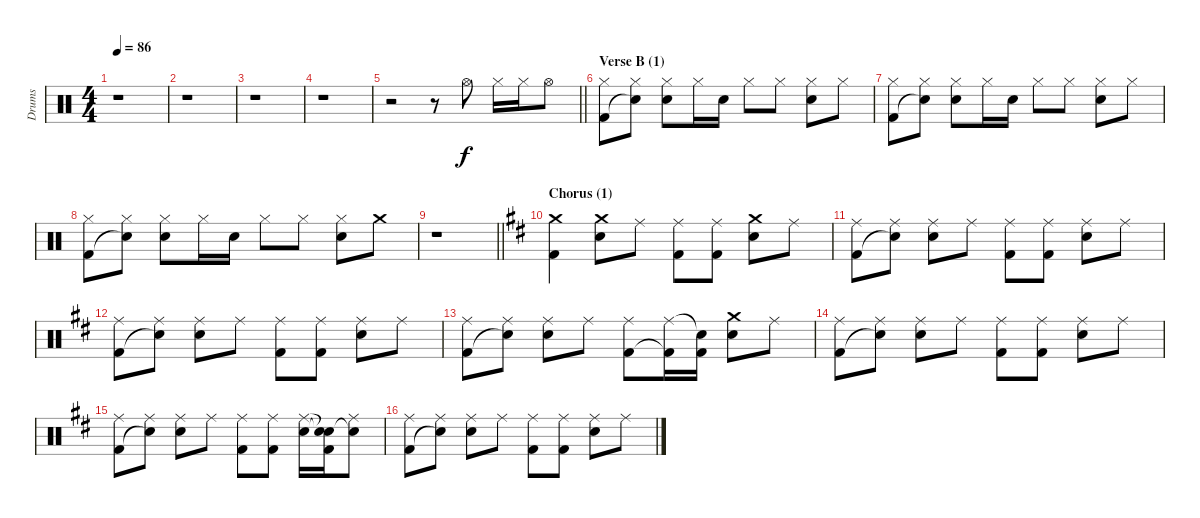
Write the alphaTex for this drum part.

\track ("Drums" "Drums") {instrument percussion}
\staff {score}
\articulation defaults
\ts (4 4)
\tempo 86
\clef neutral
\ks aminor
r.1{dy f} |
r.1 |
r.1 |
r.1 |
\barLineRight lightlight
r.2 r.8 "Hi-Hat (open)".8 "Hi-Hat (closed)".16 "Hi-Hat (closed)".16 "Hi-Hat (open)".8 |
\section ("" "Verse B (1)")
("Hi-Hat (closed)" "Kick (hit) 2").8 ("Hi-Hat (closed)" "Snare (hit)"{t}).8 ("Hi-Hat (closed)" "Electric Snare (hit)").8 "Hi-Hat (closed)".16 "Electric Snare (hit)".16 "Hi-Hat (closed)".8 "Hi-Hat (closed)".8 ("Hi-Hat (closed)" "Electric Snare (hit)").8 "Hi-Hat (closed)".8 |
("Hi-Hat (closed)" "Kick (hit) 2").8 ("Hi-Hat (closed)" "Snare (hit)"{t}).8 ("Hi-Hat (closed)" "Electric Snare (hit)").8 "Hi-Hat (closed)".16 "Electric Snare (hit)".16 "Hi-Hat (closed)".8 "Hi-Hat (closed)".8 ("Hi-Hat (closed)" "Electric Snare (hit)").8 "Hi-Hat (closed)".8 |
("Hi-Hat (closed)" "Kick (hit) 2").8 ("Hi-Hat (closed)" "Snare (hit)"{t}).8 ("Hi-Hat (closed)" "Electric Snare (hit)").8 "Hi-Hat (closed)".16 "Electric Snare (hit)".16 "Hi-Hat (closed)".8 "Hi-Hat (closed)".8 ("Hi-Hat (closed)" "Electric Snare (hit)").8 "Crash medium (hit)".8 |
\barLineRight lightlight
r.1 |
\section ("" "Chorus (1)")
\ks bminor
("Crash medium (hit)" "Kick (hit) 2").4 ("Crash medium (hit)" "Electric Snare (hit)").8 "Ride (middle)".8 ("Ride (middle)" "Kick (hit) 2").8 ("Ride (middle)" "Kick (hit) 2").8 ("Crash medium (hit)" "Electric Snare (hit)").8 "Ride (middle)".8 |
("Ride (middle)" "Kick (hit) 2").8 ("Ride (middle)" "Snare (hit)"{t}).8 ("Ride (middle)" "Electric Snare (hit)").8 "Ride (middle)".8 ("Ride (middle)" "Kick (hit) 2").8 ("Ride (middle)" "Kick (hit) 2").8 ("Ride (middle)" "Electric Snare (hit)").8 "Ride (middle)".8 |
("Ride (middle)" "Kick (hit) 2").8 ("Ride (middle)" "Snare (hit)"{t}).8 ("Ride (middle)" "Electric Snare (hit)").8 "Ride (middle)".8 ("Ride (middle)" "Kick (hit) 2").8 ("Ride (middle)" "Kick (hit) 2").8 ("Ride (middle)" "Electric Snare (hit)").8 "Ride (middle)".8 |
("Ride (middle)" "Kick (hit) 2").8 ("Ride (middle)" "Snare (hit)"{t}).8 ("Ride (middle)" "Electric Snare (hit)").8 "Ride (middle)".8 ("Ride (middle)" "Kick (hit) 2").8 ("Ride (middle)" "Kick (hit) 2"{t}).16 ("Snare (hit)"{t} "Kick (hit) 2").16 ("Crash medium (hit)" "Electric Snare (hit)").8 "Ride (middle)".8 |
("Ride (middle)" "Kick (hit) 2").8 ("Ride (middle)" "Snare (hit)"{t}).8 ("Ride (middle)" "Electric Snare (hit)").8 "Ride (middle)".8 ("Ride (middle)" "Kick (hit) 2").8 ("Ride (middle)" "Kick (hit) 2").8 ("Ride (middle)" "Electric Snare (hit)").8 "Ride (middle)".8 |
("Ride (middle)" "Kick (hit) 2").8 ("Ride (middle)" "Snare (hit)"{t}).8 ("Ride (middle)" "Electric Snare (hit)").8 "Ride (middle)".8 ("Ride (middle)" "Kick (hit) 2").8 ("Ride (middle)" "Kick (hit) 2").8 ("Ride (middle)" "Electric Snare (hit)").16 ("Snare (hit)"{t} "Snare (hit)"{t} "Kick (hit) 2").16 ("Ride (middle)" "Snare (hit)"{t}).8 |
("Ride (middle)" "Kick (hit) 2").8 ("Ride (middle)" "Snare (hit)"{t}).8 ("Ride (middle)" "Electric Snare (hit)").8 "Ride (middle)".8 ("Ride (middle)" "Kick (hit) 2").8 ("Ride (middle)" "Kick (hit) 2").8 ("Ride (middle)" "Electric Snare (hit)").8 "Ride (middle)".8
